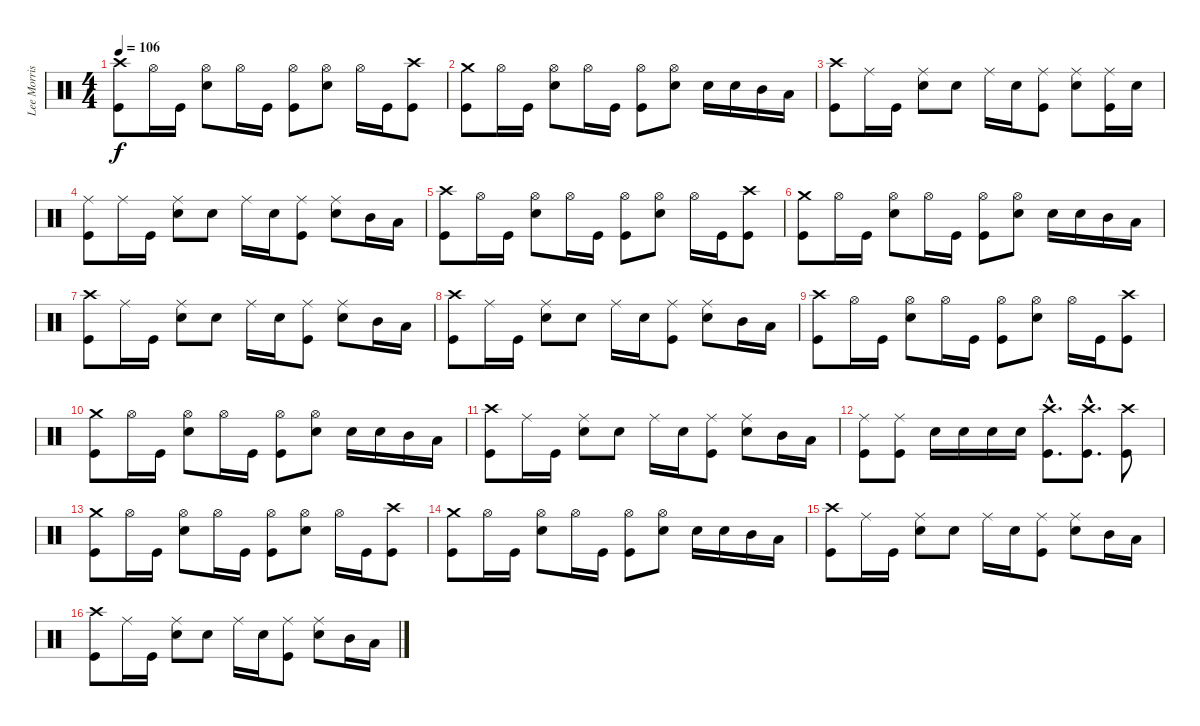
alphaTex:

\track ("Lee Morris" "Lee Morris") {instrument percussion}
\staff {score}
\articulation defaults
\ts (4 4)
\tempo 106
\clef neutral
\ks c
("Kick (hit)" "Crash high (hit)").8{dy f} "Hi-Hat (open)".16 "Kick (hit)".16 ("Snare (hit) 2" "Hi-Hat (open)").8 "Hi-Hat (open)".16 "Kick (hit)".16 ("Kick (hit)" "Hi-Hat (open)").8 ("Snare (hit) 2" "Hi-Hat (open)").8 "Hi-Hat (open)".16 "Kick (hit)".16 ("Kick (hit)" "Crash high (hit)").8 |
("Kick (hit)" "Crash medium (hit)").8 "Hi-Hat (open)".16 "Kick (hit)".16 ("Snare (hit) 2" "Hi-Hat (open)").8 "Hi-Hat (open)".16 "Kick (hit)".16 ("Kick (hit)" "Hi-Hat (open)").8 ("Snare (hit) 2" "Hi-Hat (open)").8 "Snare (hit) 2".16 "Snare (hit) 2".16 "Mid Tom (hit)".16 "Low Tom (hit)".16 |
("Kick (hit)" "Crash high (hit)").8 "Ride (middle)".16 "Kick (hit)".16 ("Snare (hit) 2" "Ride (middle)").8 "Snare (hit) 2".8 "Ride (middle)".16 "Snare (hit) 2".16 ("Kick (hit)" "Ride (middle)").8 ("Snare (hit) 2" "Ride (middle)").8 ("Kick (hit)" "Ride (middle)").16 "Snare (hit) 2".16 |
("Kick (hit)" "Ride (middle)").8 "Ride (middle)".16 "Kick (hit)".16 ("Snare (hit) 2" "Ride (middle)").8 "Snare (hit) 2".8 "Ride (middle)".16 "Snare (hit) 2".16 ("Kick (hit)" "Ride (middle)").8 ("Snare (hit) 2" "Ride (middle)").8 "Mid Tom (hit)".16 "Low Tom (hit)".16 |
("Kick (hit)" "Crash high (hit)").8 "Hi-Hat (open)".16 "Kick (hit)".16 ("Snare (hit) 2" "Hi-Hat (open)").8 "Hi-Hat (open)".16 "Kick (hit)".16 ("Kick (hit)" "Hi-Hat (open)").8 ("Snare (hit) 2" "Hi-Hat (open)").8 "Hi-Hat (open)".16 "Kick (hit)".16 ("Kick (hit)" "Crash high (hit)").8 |
("Kick (hit)" "Crash medium (hit)").8 "Hi-Hat (open)".16 "Kick (hit)".16 ("Snare (hit) 2" "Hi-Hat (open)").8 "Hi-Hat (open)".16 "Kick (hit)".16 ("Kick (hit)" "Hi-Hat (open)").8 ("Snare (hit) 2" "Hi-Hat (open)").8 "Snare (hit) 2".16 "Snare (hit) 2".16 "Mid Tom (hit)".16 "Low Tom (hit)".16 |
("Kick (hit)" "Crash high (hit)").8 "Ride (middle)".16 "Kick (hit)".16 ("Snare (hit) 2" "Ride (middle)").8 "Snare (hit) 2".8 "Ride (middle)".16 "Snare (hit) 2".16 ("Kick (hit)" "Ride (middle)").8 ("Snare (hit) 2" "Ride (middle)").8 "Mid Tom (hit)".16 "Low Tom (hit)".16 |
("Kick (hit)" "Crash high (hit)").8 "Ride (middle)".16 "Kick (hit)".16 ("Snare (hit) 2" "Ride (middle)").8 "Snare (hit) 2".8 "Ride (middle)".16 "Snare (hit) 2".16 ("Kick (hit)" "Ride (middle)").8 ("Snare (hit) 2" "Ride (middle)").8 "Mid Tom (hit)".16 "Low Tom (hit)".16 |
("Kick (hit)" "Crash high (hit)").8 "Hi-Hat (open)".16 "Kick (hit)".16 ("Snare (hit) 2" "Hi-Hat (open)").8 "Hi-Hat (open)".16 "Kick (hit)".16 ("Kick (hit)" "Hi-Hat (open)").8 ("Snare (hit) 2" "Hi-Hat (open)").8 "Hi-Hat (open)".16 "Kick (hit)".16 ("Kick (hit)" "Crash high (hit)").8 |
("Kick (hit)" "Crash medium (hit)").8 "Hi-Hat (open)".16 "Kick (hit)".16 ("Snare (hit) 2" "Hi-Hat (open)").8 "Hi-Hat (open)".16 "Kick (hit)".16 ("Kick (hit)" "Hi-Hat (open)").8 ("Snare (hit) 2" "Hi-Hat (open)").8 "Snare (hit) 2".16 "Snare (hit) 2".16 "Mid Tom (hit)".16 "Low Tom (hit)".16 |
("Kick (hit)" "Crash high (hit)").8 "Ride (middle)".16 "Kick (hit)".16 ("Snare (hit) 2" "Ride (middle)").8 "Snare (hit) 2".8 "Ride (middle)".16 "Snare (hit) 2".16 ("Kick (hit)" "Ride (middle)").8 ("Snare (hit) 2" "Ride (middle)").8 "Mid Tom (hit)".16 "Low Tom (hit)".16 |
("Kick (hit)" "Ride (middle)").8 ("Kick (hit)" "Ride (middle)").8 "Snare (hit) 2".16 "Snare (hit) 2".16 "Snare (hit) 2".16 "Snare (hit) 2".16 ("Kick (hit)"{hac} "Crash high (hit)"{hac}).8{d} ("Kick (hit)"{hac} "Crash high (hit)"{hac}).8{d} ("Kick (hit)" "Crash high (hit)").8 |
("Kick (hit)" "Crash medium (hit)").8 "Hi-Hat (open)".16 "Kick (hit)".16 ("Snare (hit) 2" "Hi-Hat (open)").8 "Hi-Hat (open)".16 "Kick (hit)".16 ("Kick (hit)" "Hi-Hat (open)").8 ("Snare (hit) 2" "Hi-Hat (open)").8 "Hi-Hat (open)".16 "Kick (hit)".16 ("Kick (hit)" "Crash high (hit)").8 |
("Kick (hit)" "Crash medium (hit)").8 "Hi-Hat (open)".16 "Kick (hit)".16 ("Snare (hit) 2" "Hi-Hat (open)").8 "Hi-Hat (open)".16 "Kick (hit)".16 ("Kick (hit)" "Hi-Hat (open)").8 ("Snare (hit) 2" "Hi-Hat (open)").8 "Snare (hit) 2".16 "Snare (hit) 2".16 "Mid Tom (hit)".16 "Low Tom (hit)".16 |
("Kick (hit)" "Crash high (hit)").8 "Ride (middle)".16 "Kick (hit)".16 ("Snare (hit) 2" "Ride (middle)").8 "Snare (hit) 2".8 "Ride (middle)".16 "Snare (hit) 2".16 ("Kick (hit)" "Ride (middle)").8 ("Snare (hit) 2" "Ride (middle)").8 "Mid Tom (hit)".16 "Low Tom (hit)".16 |
("Kick (hit)" "Crash high (hit)").8 "Ride (middle)".16 "Kick (hit)".16 ("Snare (hit) 2" "Ride (middle)").8 "Snare (hit) 2".8 "Ride (middle)".16 "Snare (hit) 2".16 ("Kick (hit)" "Ride (middle)").8 ("Snare (hit) 2" "Ride (middle)").8 "Mid Tom (hit)".16 "Low Tom (hit)".16
